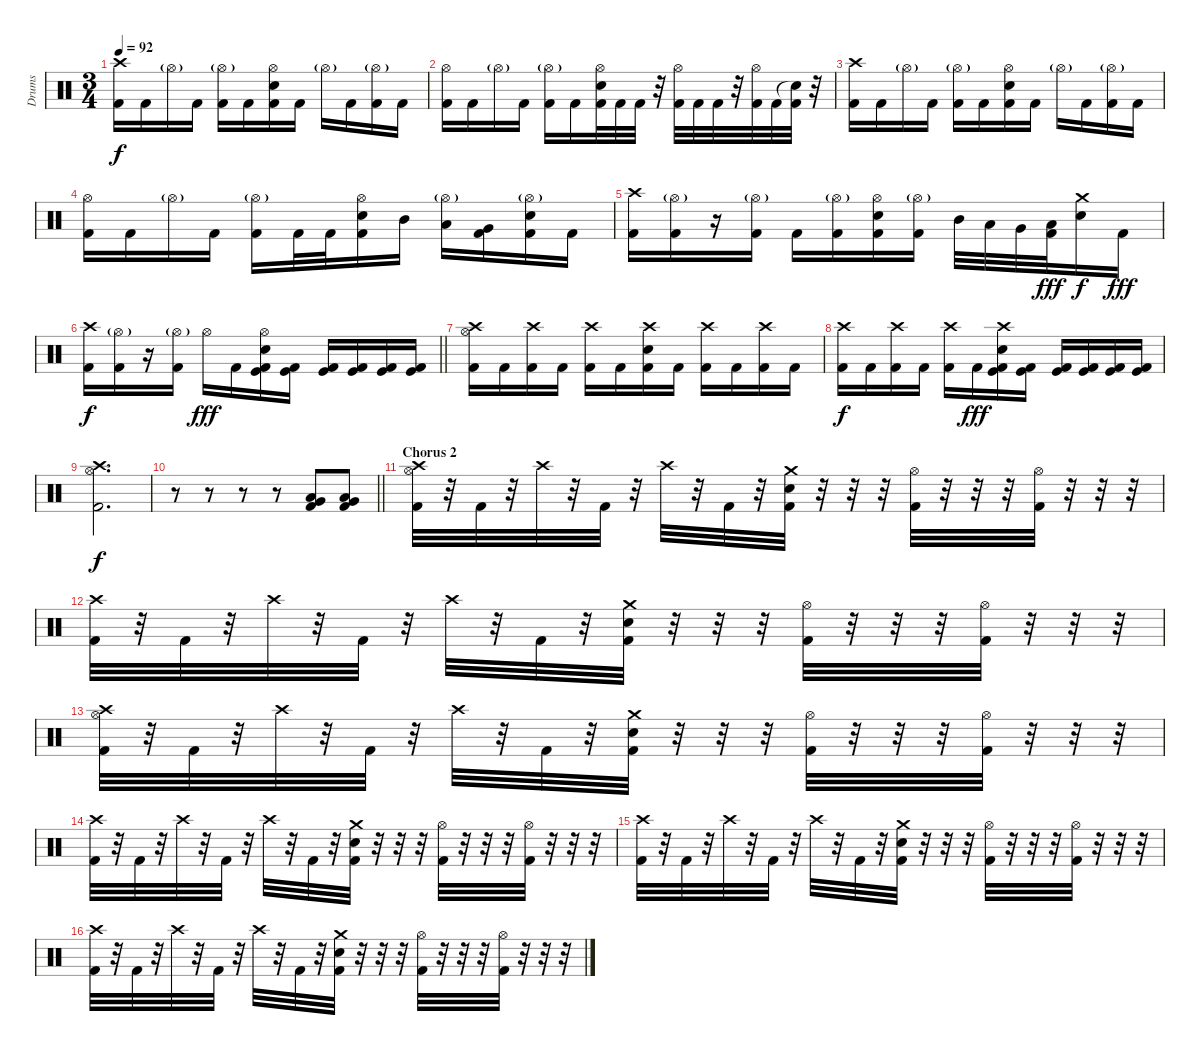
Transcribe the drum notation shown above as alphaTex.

\track ("Drums" "Drums") {instrument percussion}
\staff {score}
\articulation defaults
\ts (3 4)
\tempo 92
\clef neutral
\ks c
("Crash high (hit)" "Kick (hit) 2").16{dy f} "Kick (hit) 2".16 "Hi-Hat (open)"{g}.16 "Kick (hit) 2".16 ("Hi-Hat (open)"{g} "Kick (hit) 2").16 "Kick (hit) 2".16 ("Hi-Hat (open)" "Electric Snare (hit)" "Kick (hit) 2").16 "Kick (hit) 2".16 "Hi-Hat (open)"{g}.16 "Kick (hit) 2".16 ("Hi-Hat (open)"{g} "Kick (hit) 2").16 "Kick (hit) 2".16 |
("Hi-Hat (open)" "Kick (hit) 2").16 "Kick (hit) 2".16 "Hi-Hat (open)"{g}.16 "Kick (hit) 2".16 ("Hi-Hat (open)"{g} "Kick (hit) 2").16 "Kick (hit) 2".16 ("Hi-Hat (open)" "Electric Snare (hit)" "Kick (hit) 2").32 "Kick (hit) 2".32 "Kick (hit) 2".32 r.32 ("Hi-Hat (open)" "Kick (hit) 2").32 "Kick (hit) 2".32 "Kick (hit) 2".32 r.32 ("Hi-Hat (open)" "Kick (hit) 2").32 "Kick (hit) 2".32 ("Snare (hit)"{t} "Kick (hit) 2").32 r.32 |
("Crash high (hit)" "Kick (hit) 2").16 "Kick (hit) 2".16 "Hi-Hat (open)"{g}.16 "Kick (hit) 2".16 ("Hi-Hat (open)"{g} "Kick (hit) 2").16 "Kick (hit) 2".16 ("Hi-Hat (open)" "Electric Snare (hit)" "Kick (hit) 2").16 "Kick (hit) 2".16 "Hi-Hat (open)"{g}.16 "Kick (hit) 2".16 ("Hi-Hat (open)"{g} "Kick (hit) 2").16 "Kick (hit) 2".16 |
("Hi-Hat (open)" "Kick (hit) 2").16 "Kick (hit) 2".16 "Hi-Hat (open)"{g}.16 "Kick (hit) 2".16 ("Hi-Hat (open)"{g} "Kick (hit) 2").16 "Kick (hit) 2".32 "Kick (hit) 2".32 ("Hi-Hat (open)" "Electric Snare (hit)" "Kick (hit) 2").16 "Mid Tom (hit)".16 ("Hi-Hat (open)"{g} "Low Tom (hit)").16 ("Very Low Tom (hit)" "Kick (hit) 2").16 ("Hi-Hat (open)"{g} "Electric Snare (hit)" "Kick (hit) 2").16 "Kick (hit) 2".16 |
("Crash high (hit)" "Kick (hit) 2").16 ("Hi-Hat (open)"{g} "Kick (hit) 2").16 r.16 ("Hi-Hat (open)"{g} "Kick (hit) 2").16 "Kick (hit) 2".16 ("Hi-Hat (open)"{g} "Kick (hit) 2").16 ("Hi-Hat (open)" "Electric Snare (hit)" "Kick (hit) 2").16 ("Hi-Hat (open)"{g} "Kick (hit) 2").16 "Mid Tom (hit)".32 "Low Tom (hit)".32 "Very Low Tom (hit)".32 ("Low Floor Tom (hit)" "Kick (hit) 2").32{dy fff} ("Crash medium (hit)" "Electric Snare (hit)").16{dy f} "Kick (hit) 2".16{dy fff} |
\barLineRight lightlight
("Crash high (hit)" "Kick (hit) 2").16{dy f} ("Hi-Hat (open)"{g} "Kick (hit) 2").16 r.16 ("Hi-Hat (open)"{g} "Kick (hit) 2").16 "Hi-Hat (open)".16{dy fff} "Kick (hit) 2".16 ("Hi-Hat (open)" "Electric Snare (hit)" "Kick (hit)" "Kick (hit) 2").16 ("Kick (hit)" "Kick (hit) 2").16 ("Kick (hit)" "Kick (hit) 2").16 ("Kick (hit)" "Kick (hit) 2").16 ("Kick (hit)" "Kick (hit) 2").16 ("Kick (hit)" "Kick (hit) 2").16 |
("Crash high (hit)" "Hi-Hat (open)" "Kick (hit) 2").16 "Kick (hit) 2".16 ("Crash high (hit)" "Kick (hit) 2").16 "Kick (hit) 2".16 ("Crash high (hit)" "Kick (hit) 2").16 "Kick (hit) 2".16 ("Crash high (hit)" "Electric Snare (hit)" "Kick (hit) 2").16 "Kick (hit) 2".16 ("Crash high (hit)" "Kick (hit) 2").16 "Kick (hit) 2".16 ("Crash high (hit)" "Kick (hit) 2").16 "Kick (hit) 2".16 |
("Crash high (hit)" "Kick (hit) 2").16{dy f} "Kick (hit) 2".16 ("Crash high (hit)" "Kick (hit) 2").16 "Kick (hit) 2".16 ("Crash high (hit)" "Kick (hit) 2").16 "Kick (hit) 2".16{dy fff} ("Crash high (hit)" "Electric Snare (hit)" "Kick (hit)" "Kick (hit) 2").16 ("Kick (hit)" "Kick (hit) 2").16 ("Kick (hit)" "Kick (hit) 2").16 ("Kick (hit)" "Kick (hit) 2").16 ("Kick (hit)" "Kick (hit) 2").16 ("Kick (hit)" "Kick (hit) 2").16 |
("Crash high (hit)" "Hi-Hat (open)" "Kick (hit) 2").2{d dy f} |
\barLineRight lightlight
r.8 r.8 r.8 r.8 ("Low Tom (hit)" "Very Low Tom (hit)" "Kick (hit) 2").8 ("Very Low Tom (hit)" "Low Floor Tom (hit)" "Kick (hit) 2").8 |
\section ("" "Chorus 2")
("Crash high (hit)" "Hi-Hat (open)" "Kick (hit) 2").32 r.32 "Kick (hit) 2".32 r.32 "Crash high (hit)".32 r.32 "Kick (hit) 2".32 r.32 "Crash high (hit)".32 r.32 "Kick (hit) 2".32 r.32 ("Crash medium (hit)" "Electric Snare (hit)" "Kick (hit) 2").32 r.32 r.32 r.32 ("Hi-Hat (open)" "Kick (hit) 2").32 r.32 r.32 r.32 ("Hi-Hat (open)" "Kick (hit) 2").32 r.32 r.32 r.32 |
("Crash high (hit)" "Kick (hit) 2").32 r.32 "Kick (hit) 2".32 r.32 "Crash high (hit)".32 r.32 "Kick (hit) 2".32 r.32 "Crash high (hit)".32 r.32 "Kick (hit) 2".32 r.32 ("Crash medium (hit)" "Electric Snare (hit)" "Kick (hit) 2").32 r.32 r.32 r.32 ("Hi-Hat (open)" "Kick (hit) 2").32 r.32 r.32 r.32 ("Hi-Hat (open)" "Kick (hit) 2").32 r.32 r.32 r.32 |
("Crash high (hit)" "Hi-Hat (open)" "Kick (hit) 2").32 r.32 "Kick (hit) 2".32 r.32 "Crash high (hit)".32 r.32 "Kick (hit) 2".32 r.32 "Crash high (hit)".32 r.32 "Kick (hit) 2".32 r.32 ("Crash medium (hit)" "Electric Snare (hit)" "Kick (hit) 2").32 r.32 r.32 r.32 ("Hi-Hat (open)" "Kick (hit) 2").32 r.32 r.32 r.32 ("Hi-Hat (open)" "Kick (hit) 2").32 r.32 r.32 r.32 |
("Crash high (hit)" "Kick (hit) 2").32 r.32 "Kick (hit) 2".32 r.32 "Crash high (hit)".32 r.32 "Kick (hit) 2".32 r.32 "Crash high (hit)".32 r.32 "Kick (hit) 2".32 r.32 ("Crash medium (hit)" "Electric Snare (hit)" "Kick (hit) 2").32 r.32 r.32 r.32 ("Hi-Hat (open)" "Kick (hit) 2").32 r.32 r.32 r.32 ("Hi-Hat (open)" "Kick (hit) 2").32 r.32 r.32 r.32 |
("Crash high (hit)" "Kick (hit) 2").32 r.32 "Kick (hit) 2".32 r.32 "Crash high (hit)".32 r.32 "Kick (hit) 2".32 r.32 "Crash high (hit)".32 r.32 "Kick (hit) 2".32 r.32 ("Crash medium (hit)" "Electric Snare (hit)" "Kick (hit) 2").32 r.32 r.32 r.32 ("Hi-Hat (open)" "Kick (hit) 2").32 r.32 r.32 r.32 ("Hi-Hat (open)" "Kick (hit) 2").32 r.32 r.32 r.32 |
("Crash high (hit)" "Kick (hit) 2").32 r.32 "Kick (hit) 2".32 r.32 "Crash high (hit)".32 r.32 "Kick (hit) 2".32 r.32 "Crash high (hit)".32 r.32 "Kick (hit) 2".32 r.32 ("Crash medium (hit)" "Electric Snare (hit)" "Kick (hit) 2").32 r.32 r.32 r.32 ("Hi-Hat (open)" "Kick (hit) 2").32 r.32 r.32 r.32 ("Hi-Hat (open)" "Kick (hit) 2").32 r.32 r.32 r.32
